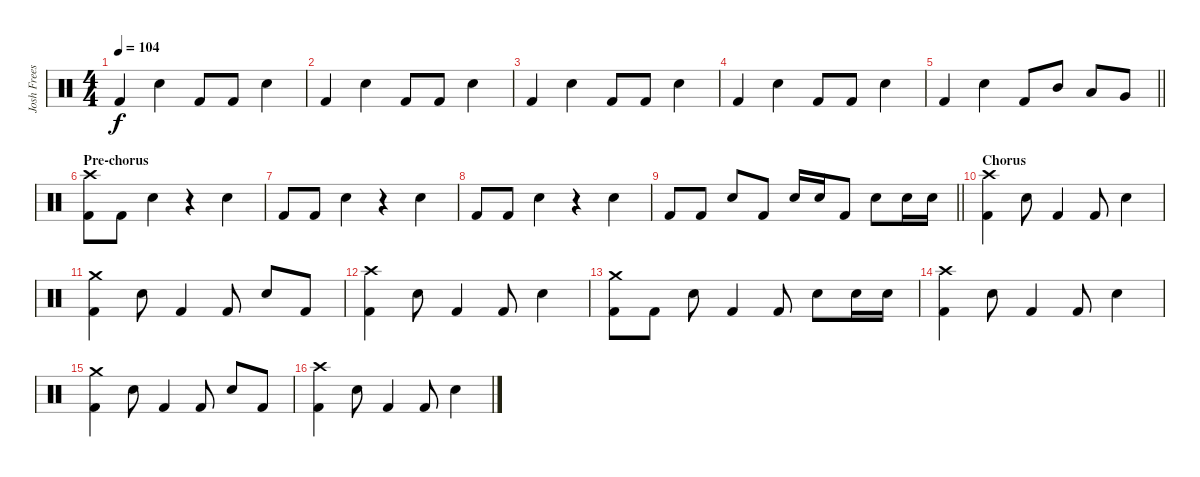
\track ("Josh Freese (Studio Drummer)" "Josh Frees") {instrument percussion}
\staff {score}
\articulation defaults
\ts (4 4)
\tempo 104
\clef neutral
\ks c "Kick (hit) 2".4{dy f} "Electric Snare (hit)".4 "Kick (hit) 2".8 "Kick (hit) 2".8 "Electric Snare (hit)".4
|
"Kick (hit) 2".4 "Electric Snare (hit)".4 "Kick (hit) 2".8 "Kick (hit) 2".8 "Electric Snare (hit)".4 |
"Kick (hit) 2".4 "Electric Snare (hit)".4 "Kick (hit) 2".8 "Kick (hit) 2".8 "Electric Snare (hit)".4 |
"Kick (hit) 2".4 "Electric Snare (hit)".4 "Kick (hit) 2".8 "Kick (hit) 2".8 "Electric Snare (hit)".4 |
\barLineRight lightlight "Kick (hit) 2".4 "Electric Snare (hit)".4 "Kick (hit) 2".8 "Mid Tom (hit)".8 "Low Tom (hit)".8 "Very Low Tom (hit)".8
|
\section ("" "Pre-chorus")
("Crash high (hit)" "Kick (hit) 2").8 "Kick (hit) 2".8 "Electric Snare (hit)".4 r.4 "Electric Snare (hit)".4 |
"Kick (hit) 2".8 "Kick (hit) 2".8 "Electric Snare (hit)".4 r.4 "Electric Snare (hit)".4 |
"Kick (hit) 2".8 "Kick (hit) 2".8 "Electric Snare (hit)".4 r.4 "Electric Snare (hit)".4 |
\barLineRight lightlight "Kick (hit) 2".8 "Kick (hit) 2".8 "Electric Snare (hit)".8 "Kick (hit) 2".8 "Electric Snare (hit)".16 "Electric Snare (hit)".16 "Kick (hit) 2".8 "Electric Snare (hit)".8 "Electric Snare (hit)".16 "Electric Snare (hit)".16
|
\section ("" "Chorus")
("Crash high (hit)" "Kick (hit) 2").4 "Electric Snare (hit)".8 "Kick (hit) 2".4 "Kick (hit) 2".8 "Electric Snare (hit)".4 |
("Crash medium (hit)" "Kick (hit) 2").4 "Electric Snare (hit)".8 "Kick (hit) 2".4 "Kick (hit) 2".8 "Electric Snare (hit)".8 "Kick (hit) 2".8 |
("Crash high (hit)" "Kick (hit) 2").4 "Electric Snare (hit)".8 "Kick (hit) 2".4 "Kick (hit) 2".8 "Electric Snare (hit)".4 |
("Crash medium (hit)" "Kick (hit) 2").8 "Kick (hit) 2".8 "Electric Snare (hit)".8 "Kick (hit) 2".4 "Kick (hit) 2".8 "Electric Snare (hit)".8 "Electric Snare (hit)".16 "Electric Snare (hit)".16 |
("Crash high (hit)" "Kick (hit) 2").4 "Electric Snare (hit)".8 "Kick (hit) 2".4 "Kick (hit) 2".8 "Electric Snare (hit)".4 |
("Crash medium (hit)" "Kick (hit) 2").4 "Electric Snare (hit)".8 "Kick (hit) 2".4 "Kick (hit) 2".8 "Electric Snare (hit)".8 "Kick (hit) 2".8 |
("Crash high (hit)" "Kick (hit) 2").4 "Electric Snare (hit)".8 "Kick (hit) 2".4 "Kick (hit) 2".8 "Electric Snare (hit)".4
